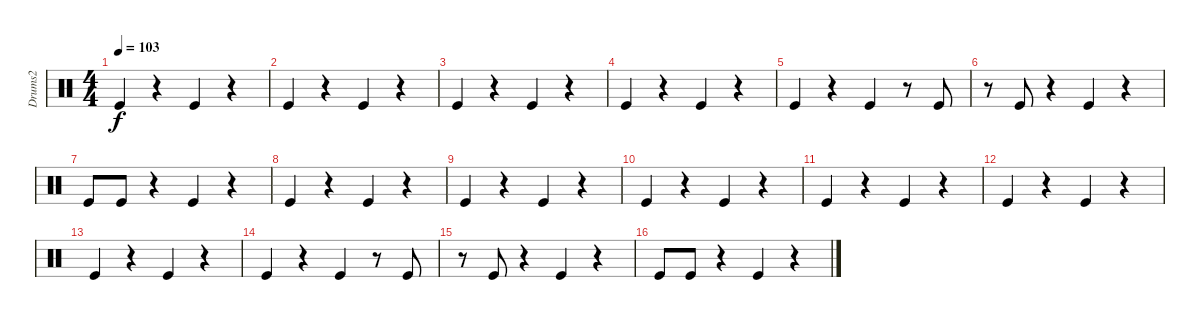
\track ("Drums2" "Drums2") {instrument percussion}
\staff {score}
\articulation defaults
\ts (4 4)
\tempo 103
\clef neutral
\ks c "Kick (hit)".4{dy f}
r.4 "Kick (hit)".4 r.4 |
"Kick (hit)".4 r.4 "Kick (hit)".4 r.4 |
"Kick (hit)".4 r.4 "Kick (hit)".4 r.4 |
"Kick (hit)".4 r.4 "Kick (hit)".4 r.4 |
"Kick (hit)".4 r.4 "Kick (hit)".4 r.8 "Kick (hit)".8 |
r.8 "Kick (hit)".8 r.4 "Kick (hit)".4 r.4 |
"Kick (hit)".8 "Kick (hit)".8 r.4 "Kick (hit)".4 r.4 |
"Kick (hit)".4 r.4 "Kick (hit)".4 r.4 |
"Kick (hit)".4 r.4 "Kick (hit)".4 r.4 |
"Kick (hit)".4 r.4 "Kick (hit)".4 r.4 |
"Kick (hit)".4 r.4 "Kick (hit)".4 r.4 |
"Kick (hit)".4 r.4 "Kick (hit)".4 r.4 |
"Kick (hit)".4 r.4 "Kick (hit)".4 r.4 |
"Kick (hit)".4 r.4 "Kick (hit)".4 r.8 "Kick (hit)".8 |
r.8 "Kick (hit)".8 r.4 "Kick (hit)".4 r.4 |
"Kick (hit)".8 "Kick (hit)".8 r.4 "Kick (hit)".4 r.4
